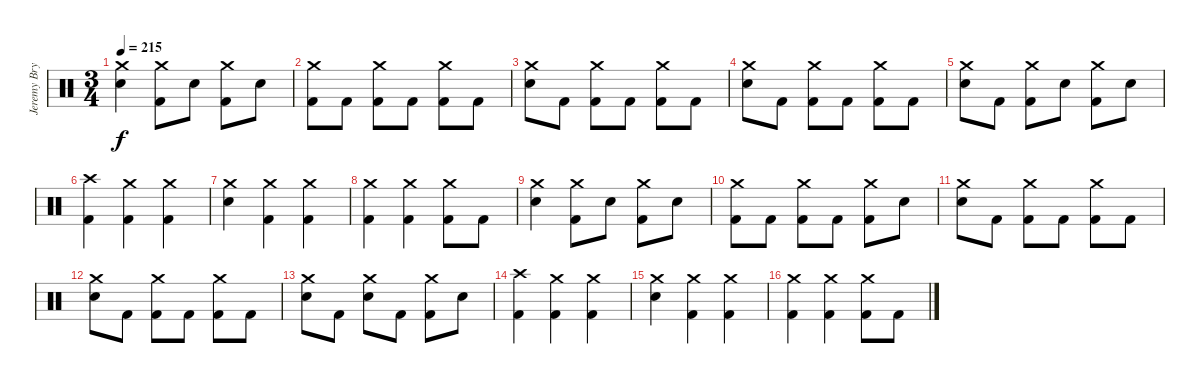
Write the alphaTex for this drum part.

\track ("Jeremy Bryan - Drums" "Jeremy Bry") {instrument percussion}
\staff {score}
\articulation defaults
\ts (3 4)
\tempo 215
\clef neutral
\ks c
("Crash medium (hit)" "Electric Snare (hit)").4{dy f} ("Crash medium (hit)" "Kick (hit) 2").8 "Electric Snare (hit)".8 ("Crash medium (hit)" "Kick (hit) 2").8 "Electric Snare (hit)".8 |
("Crash medium (hit)" "Kick (hit) 2").8 "Kick (hit) 2".8 ("Crash medium (hit)" "Kick (hit) 2").8 "Kick (hit) 2".8 ("Crash medium (hit)" "Kick (hit) 2").8 "Kick (hit) 2".8 |
("Crash medium (hit)" "Electric Snare (hit)").8 "Kick (hit) 2".8 ("Crash medium (hit)" "Kick (hit) 2").8 "Kick (hit) 2".8 ("Crash medium (hit)" "Kick (hit) 2").8 "Kick (hit) 2".8 |
("Crash medium (hit)" "Electric Snare (hit)").8 "Kick (hit) 2".8 ("Crash medium (hit)" "Kick (hit) 2").8 "Kick (hit) 2".8 ("Crash medium (hit)" "Kick (hit) 2").8 "Kick (hit) 2".8 |
("Crash medium (hit)" "Electric Snare (hit)").8 "Kick (hit) 2".8 ("Crash medium (hit)" "Kick (hit) 2").8 "Electric Snare (hit)".8 ("Crash medium (hit)" "Kick (hit) 2").8 "Electric Snare (hit)".8 |
("Crash high (hit)" "Kick (hit) 2").4 ("Crash medium (hit)" "Kick (hit) 2").4 ("Crash medium (hit)" "Kick (hit) 2").4 |
("Crash medium (hit)" "Electric Snare (hit)").4 ("Crash medium (hit)" "Kick (hit) 2").4 ("Crash medium (hit)" "Kick (hit) 2").4 |
("Crash medium (hit)" "Kick (hit) 2").4 ("Crash medium (hit)" "Kick (hit) 2").4 ("Crash medium (hit)" "Kick (hit) 2").8 "Kick (hit) 2".8 |
("Crash medium (hit)" "Electric Snare (hit)").4 ("Crash medium (hit)" "Kick (hit) 2").8 "Electric Snare (hit)".8 ("Crash medium (hit)" "Kick (hit) 2").8 "Electric Snare (hit)".8 |
("Crash medium (hit)" "Kick (hit) 2").8 "Kick (hit) 2".8 ("Crash medium (hit)" "Kick (hit) 2").8 "Kick (hit) 2".8 ("Crash medium (hit)" "Kick (hit) 2").8 "Electric Snare (hit)".8 |
("Crash medium (hit)" "Electric Snare (hit)").8 "Kick (hit) 2".8 ("Crash medium (hit)" "Kick (hit) 2").8 "Kick (hit) 2".8 ("Crash medium (hit)" "Kick (hit) 2").8 "Kick (hit) 2".8 |
("Crash medium (hit)" "Electric Snare (hit)").8 "Kick (hit) 2".8 ("Crash medium (hit)" "Kick (hit) 2").8 "Kick (hit) 2".8 ("Crash medium (hit)" "Kick (hit) 2").8 "Kick (hit) 2".8 |
("Crash medium (hit)" "Electric Snare (hit)").8 "Kick (hit) 2".8 ("Crash medium (hit)" "Electric Snare (hit)").8 "Kick (hit) 2".8 ("Crash medium (hit)" "Kick (hit) 2").8 "Electric Snare (hit)".8 |
("Crash high (hit)" "Kick (hit) 2").4 ("Crash medium (hit)" "Kick (hit) 2").4 ("Crash medium (hit)" "Kick (hit) 2").4 |
("Crash medium (hit)" "Electric Snare (hit)").4 ("Crash medium (hit)" "Kick (hit) 2").4 ("Crash medium (hit)" "Kick (hit) 2").4 |
("Crash medium (hit)" "Kick (hit) 2").4 ("Crash medium (hit)" "Kick (hit) 2").4 ("Crash medium (hit)" "Kick (hit) 2").8 "Kick (hit) 2".8
